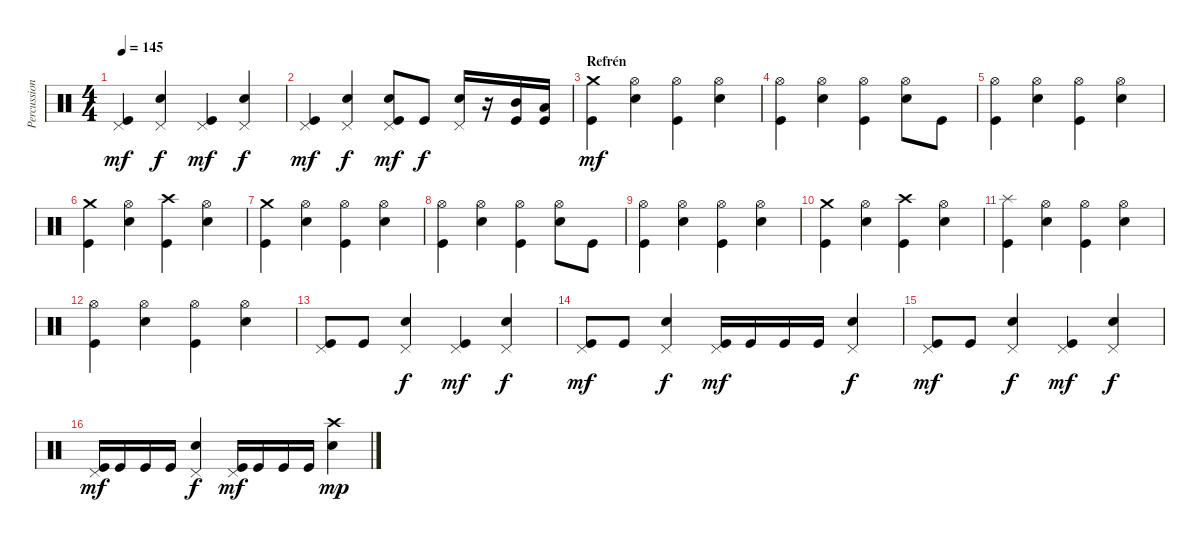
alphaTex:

\track ("Percussion" "Percussion") {instrument percussion}
\staff {score}
\articulation defaults
\ts (4 4)
\tempo 145
\clef neutral
\ks c
("Pedal Hi-Hat (hit)" "Kick (hit)").4{dy mf} ("Pedal Hi-Hat (hit)" "Electric Snare (hit)").4{dy f} ("Pedal Hi-Hat (hit)" "Kick (hit)").4{dy mf} ("Pedal Hi-Hat (hit)" "Electric Snare (hit)").4{dy f} |
("Pedal Hi-Hat (hit)" "Kick (hit)").4{dy mf} ("Pedal Hi-Hat (hit)" "Electric Snare (hit)").4{dy f} ("Pedal Hi-Hat (hit)" "Kick (hit)" "Electric Snare (hit)").8{dy mf} "Kick (hit)".8{dy f} ("Pedal Hi-Hat (hit)" "Electric Snare (hit)").16 r.16 ("Kick (hit)" "Mid Tom (hit)").16 ("Kick (hit)" "Low Tom (hit)").16 |
\section ("" "Refrén")
("Crash medium (hit)" "Kick (hit)").4{dy mf} ("Hi-Hat (open)" "Electric Snare (hit)").4 ("Hi-Hat (open)" "Kick (hit)").4 ("Hi-Hat (open)" "Electric Snare (hit)").4 |
("Hi-Hat (open)" "Kick (hit)").4 ("Hi-Hat (open)" "Electric Snare (hit)").4 ("Hi-Hat (open)" "Kick (hit)").4 ("Hi-Hat (open)" "Electric Snare (hit)").8 "Kick (hit)".8 |
("Hi-Hat (open)" "Kick (hit)").4 ("Hi-Hat (open)" "Electric Snare (hit)").4 ("Hi-Hat (open)" "Kick (hit)").4 ("Hi-Hat (open)" "Electric Snare (hit)").4 |
("Crash medium (hit)" "Kick (hit)").4 ("Hi-Hat (open)" "Electric Snare (hit)").4 ("Crash high (hit)" "Kick (hit)").4 ("Hi-Hat (open)" "Electric Snare (hit)").4 |
("Crash medium (hit)" "Kick (hit)").4 ("Hi-Hat (open)" "Electric Snare (hit)").4 ("Hi-Hat (open)" "Kick (hit)").4 ("Hi-Hat (open)" "Electric Snare (hit)").4 |
("Hi-Hat (open)" "Kick (hit)").4 ("Hi-Hat (open)" "Electric Snare (hit)").4 ("Hi-Hat (open)" "Kick (hit)").4 ("Hi-Hat (open)" "Electric Snare (hit)").8 "Kick (hit)".8 |
("Hi-Hat (open)" "Kick (hit)").4 ("Hi-Hat (open)" "Electric Snare (hit)").4 ("Hi-Hat (open)" "Kick (hit)").4 ("Hi-Hat (open)" "Electric Snare (hit)").4 |
("Crash medium (hit)" "Kick (hit)").4 ("Hi-Hat (open)" "Electric Snare (hit)").4 ("Crash high (hit)" "Kick (hit)").4 ("Hi-Hat (open)" "Electric Snare (hit)").4 |
("Splash (hit)" "Kick (hit)").4 ("Hi-Hat (open)" "Electric Snare (hit)").4 ("Hi-Hat (open)" "Kick (hit)").4 ("Hi-Hat (open)" "Electric Snare (hit)").4 |
("Hi-Hat (open)" "Kick (hit)").4 ("Hi-Hat (open)" "Electric Snare (hit)").4 ("Hi-Hat (open)" "Kick (hit)").4 ("Hi-Hat (open)" "Electric Snare (hit)").4 |
("Pedal Hi-Hat (hit)" "Kick (hit)").8 "Kick (hit)".8 ("Pedal Hi-Hat (hit)" "Electric Snare (hit)").4{dy f} ("Pedal Hi-Hat (hit)" "Kick (hit)").4{dy mf} ("Pedal Hi-Hat (hit)" "Electric Snare (hit)").4{dy f} |
("Pedal Hi-Hat (hit)" "Kick (hit)").8{dy mf} "Kick (hit)".8 ("Pedal Hi-Hat (hit)" "Electric Snare (hit)").4{dy f} ("Pedal Hi-Hat (hit)" "Kick (hit)").16{dy mf} "Kick (hit)".16 "Kick (hit)".16 "Kick (hit)".16 ("Pedal Hi-Hat (hit)" "Electric Snare (hit)").4{dy f} |
("Pedal Hi-Hat (hit)" "Kick (hit)").8{dy mf} "Kick (hit)".8 ("Pedal Hi-Hat (hit)" "Electric Snare (hit)").4{dy f} ("Pedal Hi-Hat (hit)" "Kick (hit)").4{dy mf} ("Pedal Hi-Hat (hit)" "Electric Snare (hit)").4{dy f} |
("Pedal Hi-Hat (hit)" "Kick (hit)").16{dy mf} "Kick (hit)".16 "Kick (hit)".16 "Kick (hit)".16 ("Pedal Hi-Hat (hit)" "Electric Snare (hit)").4{dy f} ("Pedal Hi-Hat (hit)" "Kick (hit)").16{dy mf} "Kick (hit)".16 "Kick (hit)".16 "Kick (hit)".16 ("Crash high (hit)" "Electric Snare (hit)").4{dy mp}
